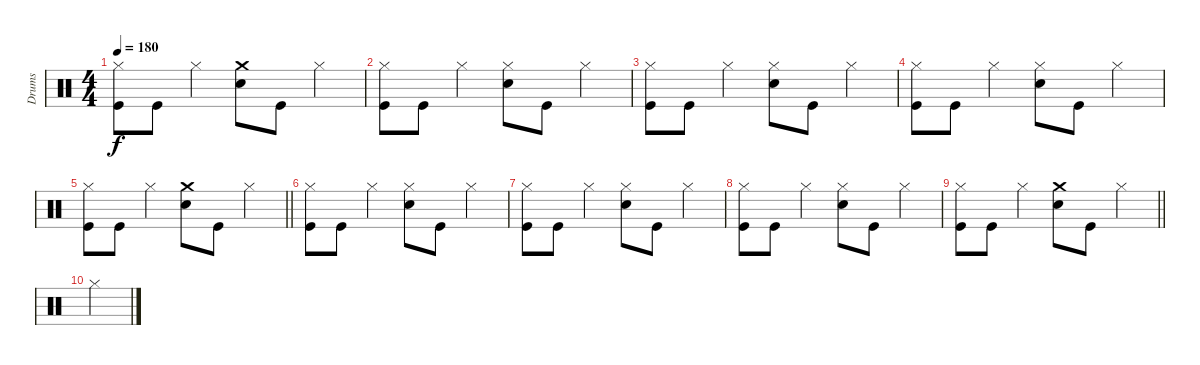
\track ("Drums" "Drums") {instrument percussion}
\staff {score}
\articulation defaults
\ts (4 4)
\tempo 180
\clef neutral
\ks c
("Hi-Hat (closed)" "Kick (hit)").8{dy f} "Kick (hit)".8 "Hi-Hat (closed)".4 ("Crash medium (hit)" "Snare (hit) 2").8 "Kick (hit)".8 "Hi-Hat (closed)".4 |
("Hi-Hat (closed)" "Kick (hit)").8 "Kick (hit)".8 "Hi-Hat (closed)".4 ("Hi-Hat (closed)" "Snare (hit) 2").8 "Kick (hit)".8 "Hi-Hat (closed)".4 |
("Hi-Hat (closed)" "Kick (hit)").8 "Kick (hit)".8 "Hi-Hat (closed)".4 ("Hi-Hat (closed)" "Snare (hit) 2").8 "Kick (hit)".8 "Hi-Hat (closed)".4 |
("Hi-Hat (closed)" "Kick (hit)").8 "Kick (hit)".8 "Hi-Hat (closed)".4 ("Hi-Hat (closed)" "Snare (hit) 2").8 "Kick (hit)".8 "Hi-Hat (closed)".4 |
\barLineRight lightlight
("Hi-Hat (closed)" "Kick (hit)").8 "Kick (hit)".8 "Hi-Hat (closed)".4 ("Crash medium (hit)" "Snare (hit) 2").8 "Kick (hit)".8 "Hi-Hat (closed)".4 |
("Hi-Hat (closed)" "Kick (hit)").8 "Kick (hit)".8 "Hi-Hat (closed)".4 ("Hi-Hat (closed)" "Snare (hit) 2").8 "Kick (hit)".8 "Hi-Hat (closed)".4 |
("Hi-Hat (closed)" "Kick (hit)").8 "Kick (hit)".8 "Hi-Hat (closed)".4 ("Hi-Hat (closed)" "Snare (hit) 2").8 "Kick (hit)".8 "Hi-Hat (closed)".4 |
("Hi-Hat (closed)" "Kick (hit)").8 "Kick (hit)".8 "Hi-Hat (closed)".4 ("Hi-Hat (closed)" "Snare (hit) 2").8 "Kick (hit)".8 "Hi-Hat (closed)".4 |
\barLineRight lightlight
("Hi-Hat (closed)" "Kick (hit)").8 "Kick (hit)".8 "Hi-Hat (closed)".4 ("Crash medium (hit)" "Snare (hit) 2").8 "Kick (hit)".8 "Hi-Hat (closed)".4 |
"Hi-Hat (closed)".4
